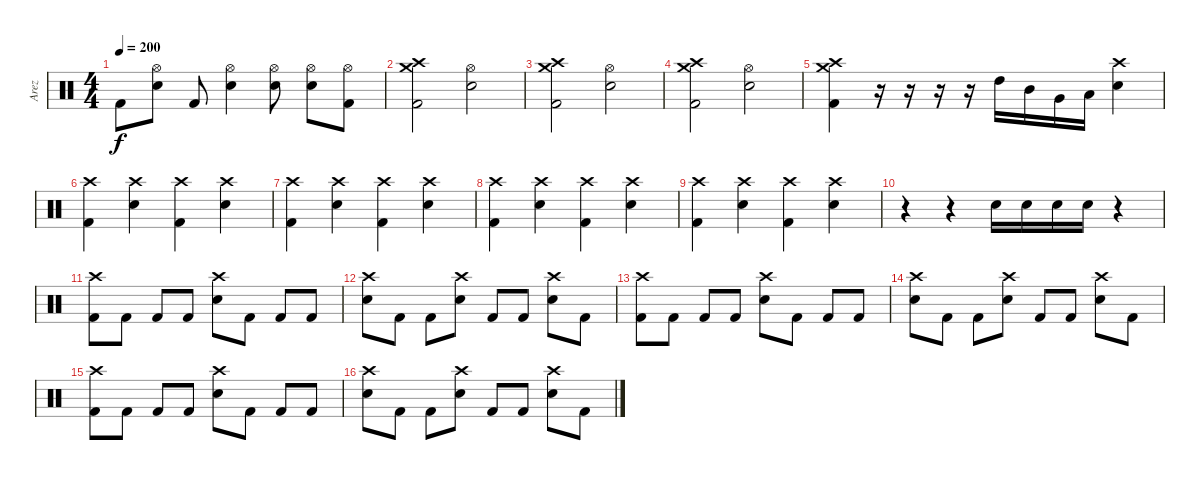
\track ("Arez" "Arez") {instrument percussion}
\staff {score}
\articulation defaults
\ts (4 4)
\tempo 200
\clef neutral
\ks c "Kick (hit) 2".8{dy f}
("Hi-Hat (open)" "Electric Snare (hit)").8 "Kick (hit) 2".8 ("Hi-Hat (open)" "Electric Snare (hit)").4 ("Hi-Hat (open)" "Electric Snare (hit)").8 ("Electric Snare (hit)" "Hi-Hat (open)").8 ("Hi-Hat (open)" "Kick (hit) 2").8 |
("Crash high (hit)" "Crash medium (hit)" "Kick (hit) 2").2 ("Hi-Hat (open)" "Electric Snare (hit)").2 |
("Crash high (hit)" "Crash medium (hit)" "Kick (hit) 2").2 ("Hi-Hat (open)" "Electric Snare (hit)").2 |
("Crash high (hit)" "Crash medium (hit)" "Kick (hit) 2").2 ("Hi-Hat (open)" "Electric Snare (hit)").2 |
("Crash high (hit)" "Crash medium (hit)" "Kick (hit) 2").4 r.16 r.16 r.16 r.16 "High Tom (hit)".16 "Mid Tom (hit)".16 "Very Low Tom (hit)".16 "Low Floor Tom (hit)".16 ("Crash high (hit)" "Electric Snare (hit)").4 |
("Kick (hit) 2" "Crash high (hit)").4 ("Crash high (hit)" "Electric Snare (hit)").4 ("Kick (hit) 2" "Crash high (hit)").4 ("Crash high (hit)" "Electric Snare (hit)").4 |
("Kick (hit) 2" "Crash high (hit)").4 ("Crash high (hit)" "Electric Snare (hit)").4 ("Kick (hit) 2" "Crash high (hit)").4 ("Crash high (hit)" "Electric Snare (hit)").4 |
("Kick (hit) 2" "Crash high (hit)").4 ("Crash high (hit)" "Electric Snare (hit)").4 ("Kick (hit) 2" "Crash high (hit)").4 ("Crash high (hit)" "Electric Snare (hit)").4 |
("Kick (hit) 2" "Crash high (hit)").4 ("Crash high (hit)" "Electric Snare (hit)").4 ("Kick (hit) 2" "Crash high (hit)").4 ("Crash high (hit)" "Electric Snare (hit)").4 |
r.4 r.4 "Electric Snare (hit)".16 "Electric Snare (hit)".16 "Electric Snare (hit)".16 "Electric Snare (hit)".16 r.4 |
("Crash high (hit)" "Kick (hit) 2").8 "Kick (hit) 2".8 "Kick (hit) 2".8 "Kick (hit) 2".8 ("Electric Snare (hit)" "Crash high (hit)").8 "Kick (hit) 2".8 "Kick (hit) 2".8 "Kick (hit) 2".8 |
("Crash high (hit)" "Electric Snare (hit)").8 "Kick (hit) 2".8 "Kick (hit) 2".8 ("Crash high (hit)" "Electric Snare (hit)").8 "Kick (hit) 2".8 "Kick (hit) 2".8 ("Electric Snare (hit)" "Crash high (hit)").8 "Kick (hit) 2".8 |
("Crash high (hit)" "Kick (hit) 2").8 "Kick (hit) 2".8 "Kick (hit) 2".8 "Kick (hit) 2".8 ("Electric Snare (hit)" "Crash high (hit)").8 "Kick (hit) 2".8 "Kick (hit) 2".8 "Kick (hit) 2".8 |
("Crash high (hit)" "Electric Snare (hit)").8 "Kick (hit) 2".8 "Kick (hit) 2".8 ("Crash high (hit)" "Electric Snare (hit)").8 "Kick (hit) 2".8 "Kick (hit) 2".8 ("Electric Snare (hit)" "Crash high (hit)").8 "Kick (hit) 2".8 |
("Crash high (hit)" "Kick (hit) 2").8 "Kick (hit) 2".8 "Kick (hit) 2".8 "Kick (hit) 2".8 ("Electric Snare (hit)" "Crash high (hit)").8 "Kick (hit) 2".8 "Kick (hit) 2".8 "Kick (hit) 2".8 |
("Crash high (hit)" "Electric Snare (hit)").8 "Kick (hit) 2".8 "Kick (hit) 2".8 ("Crash high (hit)" "Electric Snare (hit)").8 "Kick (hit) 2".8 "Kick (hit) 2".8 ("Electric Snare (hit)" "Crash high (hit)").8 "Kick (hit) 2".8
